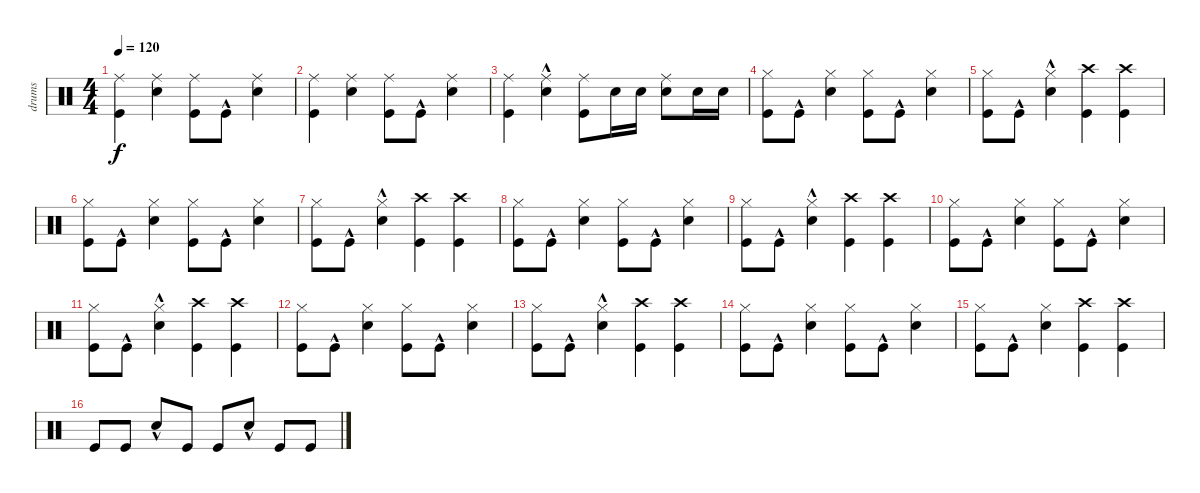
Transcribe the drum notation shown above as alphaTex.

\track ("drums" "drums") {instrument percussion}
\staff {score}
\articulation defaults
\ts (4 4)
\tempo 120
\clef neutral
\ks c
("Kick (hit)" "Ride (middle)").4{dy f} ("Snare (hit) 2" "Ride (middle)").4 ("Kick (hit)" "Ride (middle)").8 "Kick (hit)"{hac}.8 ("Snare (hit) 2" "Ride (middle)").4 |
("Kick (hit)" "Ride (middle)").4 ("Snare (hit) 2" "Ride (middle)").4 ("Kick (hit)" "Ride (middle)").8 "Kick (hit)"{hac}.8 ("Snare (hit) 2" "Ride (middle)").4 |
("Kick (hit)" "Ride (middle)").4 ("Snare (hit) 2"{hac} "Ride (middle)").4 ("Kick (hit)" "Ride (middle)").8 "Snare (hit) 2".16 "Snare (hit) 2".16 ("Snare (hit) 2" "Ride (middle)").8 "Snare (hit) 2".16 "Snare (hit) 2".16 |
("Kick (hit)" "Hi-Hat (closed)").8 "Kick (hit)"{hac}.8 ("Snare (hit) 2" "Hi-Hat (closed)").4 ("Kick (hit)" "Hi-Hat (closed)").8 "Kick (hit)"{hac}.8 ("Snare (hit) 2" "Hi-Hat (closed)").4 |
("Kick (hit)" "Hi-Hat (closed)").8 "Kick (hit)"{hac}.8 ("Snare (hit) 2" "Hi-Hat (closed)"{hac}).4 ("Kick (hit)" "Crash high (hit)").4 ("Kick (hit)" "Crash high (hit)").4 |
("Kick (hit)" "Hi-Hat (closed)").8 "Kick (hit)"{hac}.8 ("Snare (hit) 2" "Hi-Hat (closed)").4 ("Kick (hit)" "Hi-Hat (closed)").8 "Kick (hit)"{hac}.8 ("Snare (hit) 2" "Hi-Hat (closed)").4 |
("Kick (hit)" "Hi-Hat (closed)").8 "Kick (hit)"{hac}.8 ("Snare (hit) 2" "Hi-Hat (closed)"{hac}).4 ("Kick (hit)" "Crash high (hit)").4 ("Kick (hit)" "Crash high (hit)").4 |
("Kick (hit)" "Hi-Hat (closed)").8 "Kick (hit)"{hac}.8 ("Snare (hit) 2" "Hi-Hat (closed)").4 ("Kick (hit)" "Hi-Hat (closed)").8 "Kick (hit)"{hac}.8 ("Snare (hit) 2" "Hi-Hat (closed)").4 |
("Kick (hit)" "Hi-Hat (closed)").8 "Kick (hit)"{hac}.8 ("Snare (hit) 2" "Hi-Hat (closed)"{hac}).4 ("Kick (hit)" "Crash high (hit)").4 ("Kick (hit)" "Crash high (hit)").4 |
("Kick (hit)" "Hi-Hat (closed)").8 "Kick (hit)"{hac}.8 ("Snare (hit) 2" "Hi-Hat (closed)").4 ("Kick (hit)" "Hi-Hat (closed)").8 "Kick (hit)"{hac}.8 ("Snare (hit) 2" "Hi-Hat (closed)").4 |
("Kick (hit)" "Hi-Hat (closed)").8 "Kick (hit)"{hac}.8 ("Snare (hit) 2" "Hi-Hat (closed)"{hac}).4 ("Kick (hit)" "Crash high (hit)").4 ("Kick (hit)" "Crash high (hit)").4 |
("Kick (hit)" "Hi-Hat (closed)").8 "Kick (hit)"{hac}.8 ("Snare (hit) 2" "Hi-Hat (closed)").4 ("Kick (hit)" "Hi-Hat (closed)").8 "Kick (hit)"{hac}.8 ("Snare (hit) 2" "Hi-Hat (closed)").4 |
("Kick (hit)" "Hi-Hat (closed)").8 "Kick (hit)"{hac}.8 ("Snare (hit) 2" "Hi-Hat (closed)"{hac}).4 ("Kick (hit)" "Crash high (hit)").4 ("Kick (hit)" "Crash high (hit)").4 |
("Kick (hit)" "Hi-Hat (closed)").8 "Kick (hit)"{hac}.8 ("Snare (hit) 2" "Hi-Hat (closed)").4 ("Kick (hit)" "Hi-Hat (closed)").8 "Kick (hit)"{hac}.8 ("Snare (hit) 2" "Hi-Hat (closed)").4 |
("Kick (hit)" "Hi-Hat (closed)").8 "Kick (hit)"{hac}.8 ("Snare (hit) 2" "Hi-Hat (closed)").4 ("Kick (hit)" "Crash high (hit)").4 ("Kick (hit)" "Crash high (hit)").4 |
"Kick (hit)".8 "Kick (hit)".8 "Snare (hit) 2"{hac}.8 "Kick (hit)".8 "Kick (hit)".8 "Snare (hit) 2"{hac}.8 "Kick (hit)".8 "Kick (hit)".8
